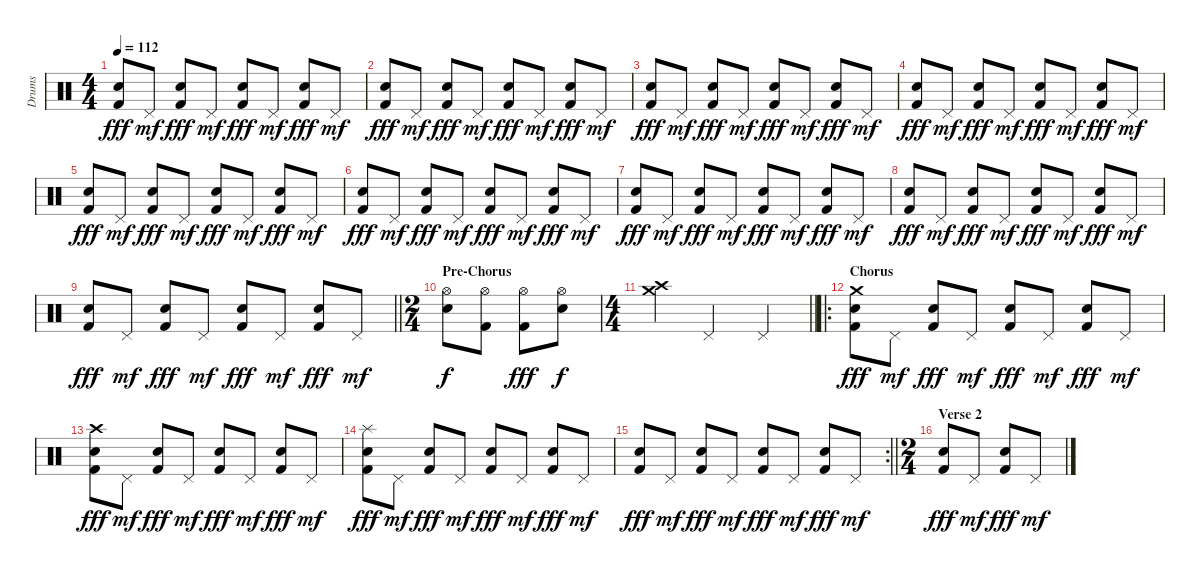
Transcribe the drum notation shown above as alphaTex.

\track ("Drums" "Drums") {instrument percussion}
\staff {score}
\articulation defaults
\ts (4 4)
\tempo 112
\clef neutral
\ks c
("Electric Snare (hit)" "Kick (hit) 2").8{dy fff} "Pedal Hi-Hat (hit)".8{dy mf} ("Electric Snare (hit)" "Kick (hit) 2").8{dy fff} "Pedal Hi-Hat (hit)".8{dy mf} ("Electric Snare (hit)" "Kick (hit) 2").8{dy fff} "Pedal Hi-Hat (hit)".8{dy mf} ("Electric Snare (hit)" "Kick (hit) 2").8{dy fff} "Pedal Hi-Hat (hit)".8{dy mf} |
("Electric Snare (hit)" "Kick (hit) 2").8{dy fff} "Pedal Hi-Hat (hit)".8{dy mf} ("Electric Snare (hit)" "Kick (hit) 2").8{dy fff} "Pedal Hi-Hat (hit)".8{dy mf} ("Electric Snare (hit)" "Kick (hit) 2").8{dy fff} "Pedal Hi-Hat (hit)".8{dy mf} ("Electric Snare (hit)" "Kick (hit) 2").8{dy fff} "Pedal Hi-Hat (hit)".8{dy mf} |
("Electric Snare (hit)" "Kick (hit) 2").8{dy fff} "Pedal Hi-Hat (hit)".8{dy mf} ("Electric Snare (hit)" "Kick (hit) 2").8{dy fff} "Pedal Hi-Hat (hit)".8{dy mf} ("Electric Snare (hit)" "Kick (hit) 2").8{dy fff} "Pedal Hi-Hat (hit)".8{dy mf} ("Electric Snare (hit)" "Kick (hit) 2").8{dy fff} "Pedal Hi-Hat (hit)".8{dy mf} |
("Electric Snare (hit)" "Kick (hit) 2").8{dy fff} "Pedal Hi-Hat (hit)".8{dy mf} ("Electric Snare (hit)" "Kick (hit) 2").8{dy fff} "Pedal Hi-Hat (hit)".8{dy mf} ("Electric Snare (hit)" "Kick (hit) 2").8{dy fff} "Pedal Hi-Hat (hit)".8{dy mf} ("Electric Snare (hit)" "Kick (hit) 2").8{dy fff} "Pedal Hi-Hat (hit)".8{dy mf} |
("Electric Snare (hit)" "Kick (hit) 2").8{dy fff} "Pedal Hi-Hat (hit)".8{dy mf} ("Electric Snare (hit)" "Kick (hit) 2").8{dy fff} "Pedal Hi-Hat (hit)".8{dy mf} ("Electric Snare (hit)" "Kick (hit) 2").8{dy fff} "Pedal Hi-Hat (hit)".8{dy mf} ("Electric Snare (hit)" "Kick (hit) 2").8{dy fff} "Pedal Hi-Hat (hit)".8{dy mf} |
("Electric Snare (hit)" "Kick (hit) 2").8{dy fff} "Pedal Hi-Hat (hit)".8{dy mf} ("Electric Snare (hit)" "Kick (hit) 2").8{dy fff} "Pedal Hi-Hat (hit)".8{dy mf} ("Electric Snare (hit)" "Kick (hit) 2").8{dy fff} "Pedal Hi-Hat (hit)".8{dy mf} ("Electric Snare (hit)" "Kick (hit) 2").8{dy fff} "Pedal Hi-Hat (hit)".8{dy mf} |
("Electric Snare (hit)" "Kick (hit) 2").8{dy fff} "Pedal Hi-Hat (hit)".8{dy mf} ("Electric Snare (hit)" "Kick (hit) 2").8{dy fff} "Pedal Hi-Hat (hit)".8{dy mf} ("Electric Snare (hit)" "Kick (hit) 2").8{dy fff} "Pedal Hi-Hat (hit)".8{dy mf} ("Electric Snare (hit)" "Kick (hit) 2").8{dy fff} "Pedal Hi-Hat (hit)".8{dy mf} |
("Electric Snare (hit)" "Kick (hit) 2").8{dy fff} "Pedal Hi-Hat (hit)".8{dy mf} ("Electric Snare (hit)" "Kick (hit) 2").8{dy fff} "Pedal Hi-Hat (hit)".8{dy mf} ("Electric Snare (hit)" "Kick (hit) 2").8{dy fff} "Pedal Hi-Hat (hit)".8{dy mf} ("Electric Snare (hit)" "Kick (hit) 2").8{dy fff} "Pedal Hi-Hat (hit)".8{dy mf} |
\barLineRight lightlight
("Electric Snare (hit)" "Kick (hit) 2").8{dy fff} "Pedal Hi-Hat (hit)".8{dy mf} ("Electric Snare (hit)" "Kick (hit) 2").8{dy fff} "Pedal Hi-Hat (hit)".8{dy mf} ("Electric Snare (hit)" "Kick (hit) 2").8{dy fff} "Pedal Hi-Hat (hit)".8{dy mf} ("Electric Snare (hit)" "Kick (hit) 2").8{dy fff} "Pedal Hi-Hat (hit)".8{dy mf} |
\ts (2 4)
\section ("" "Pre-Chorus")
("Hi-Hat (open)" "Electric Snare (hit)").8{dy f} ("Hi-Hat (open)" "Kick (hit) 2").8 ("Hi-Hat (open)" "Kick (hit) 2").8{dy fff} ("Hi-Hat (open)" "Electric Snare (hit)").8{dy f} |
\ts (4 4)
\barLineRight lightlight
("Crash high (hit)" "Crash medium (hit)").4 "Pedal Hi-Hat (hit)".2 "Pedal Hi-Hat (hit)".4 |
\ro
\section ("" "Chorus")
("Crash medium (hit)" "Electric Snare (hit)" "Kick (hit) 2").8{dy fff} "Pedal Hi-Hat (hit)".8{dy mf} ("Electric Snare (hit)" "Kick (hit) 2").8{dy fff} "Pedal Hi-Hat (hit)".8{dy mf} ("Electric Snare (hit)" "Kick (hit) 2").8{dy fff} "Pedal Hi-Hat (hit)".8{dy mf} ("Electric Snare (hit)" "Kick (hit) 2").8{dy fff} "Pedal Hi-Hat (hit)".8{dy mf} |
("Crash high (hit)" "Electric Snare (hit)" "Kick (hit) 2").8{dy fff} "Pedal Hi-Hat (hit)".8{dy mf} ("Electric Snare (hit)" "Kick (hit) 2").8{dy fff} "Pedal Hi-Hat (hit)".8{dy mf} ("Electric Snare (hit)" "Kick (hit) 2").8{dy fff} "Pedal Hi-Hat (hit)".8{dy mf} ("Electric Snare (hit)" "Kick (hit) 2").8{dy fff} "Pedal Hi-Hat (hit)".8{dy mf} |
("Splash (hit)" "Electric Snare (hit)" "Kick (hit) 2").8{dy fff} "Pedal Hi-Hat (hit)".8{dy mf} ("Electric Snare (hit)" "Kick (hit) 2").8{dy fff} "Pedal Hi-Hat (hit)".8{dy mf} ("Electric Snare (hit)" "Kick (hit) 2").8{dy fff} "Pedal Hi-Hat (hit)".8{dy mf} ("Electric Snare (hit)" "Kick (hit) 2").8{dy fff} "Pedal Hi-Hat (hit)".8{dy mf} |
\rc 2
\barLineRight lightlight
("Electric Snare (hit)" "Kick (hit) 2").8{dy fff} "Pedal Hi-Hat (hit)".8{dy mf} ("Electric Snare (hit)" "Kick (hit) 2").8{dy fff} "Pedal Hi-Hat (hit)".8{dy mf} ("Electric Snare (hit)" "Kick (hit) 2").8{dy fff} "Pedal Hi-Hat (hit)".8{dy mf} ("Electric Snare (hit)" "Kick (hit) 2").8{dy fff} "Pedal Hi-Hat (hit)".8{dy mf} |
\ts (2 4)
\section ("" "Verse 2")
("Electric Snare (hit)" "Kick (hit) 2").8{dy fff} "Pedal Hi-Hat (hit)".8{dy mf} ("Electric Snare (hit)" "Kick (hit) 2").8{dy fff} "Pedal Hi-Hat (hit)".8{dy mf}
